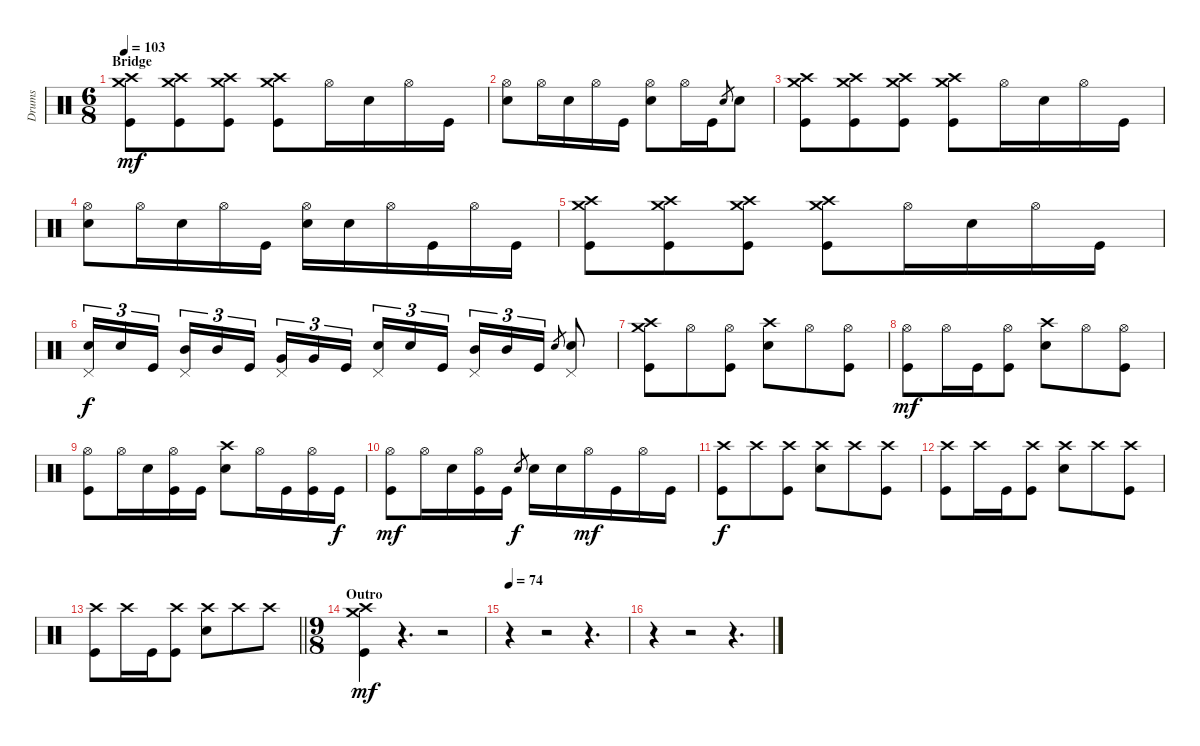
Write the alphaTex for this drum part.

\track ("Drums" "Drums") {instrument percussion}
\staff {score}
\articulation defaults
\ts (6 8)
\section ("" "Bridge")
\tempo 103
\clef neutral
\ks c
("Crash medium (hit)" "Crash high (hit)" "Kick (hit)").8{dy mf} ("Crash medium (hit)" "Crash high (hit)" "Kick (hit)").8 ("Crash medium (hit)" "Crash high (hit)" "Kick (hit)").8 ("Crash medium (hit)" "Crash high (hit)" "Kick (hit)").8 "Hi-Hat (open)".16 "Snare (hit) 2".16 "Hi-Hat (open)".16 "Kick (hit)".16 |
("Hi-Hat (open)" "Snare (hit) 2").8 "Hi-Hat (open)".16 "Snare (hit) 2".16 "Hi-Hat (open)".16 "Kick (hit)".16 ("Hi-Hat (open)" "Snare (hit) 2").8 "Hi-Hat (open)".16 "Kick (hit)".16 "Snare (hit) 2".8{gr} "Snare (hit) 2".8 |
("Crash medium (hit)" "Crash high (hit)" "Kick (hit)").8 ("Crash medium (hit)" "Crash high (hit)" "Kick (hit)").8 ("Crash medium (hit)" "Crash high (hit)" "Kick (hit)").8 ("Crash medium (hit)" "Crash high (hit)" "Kick (hit)").8 "Hi-Hat (open)".16 "Snare (hit) 2".16 "Hi-Hat (open)".16 "Kick (hit)".16 |
("Hi-Hat (open)" "Snare (hit) 2").8 "Hi-Hat (open)".16 "Snare (hit) 2".16 "Hi-Hat (open)".16 "Kick (hit)".16 ("Hi-Hat (open)" "Snare (hit) 2").16 "Snare (hit) 2".16 "Hi-Hat (open)".16 "Kick (hit)".16 "Hi-Hat (open)".16 "Kick (hit)".16 |
("Crash medium (hit)" "Crash high (hit)" "Kick (hit)").8 ("Crash medium (hit)" "Crash high (hit)" "Kick (hit)").8 ("Crash medium (hit)" "Crash high (hit)" "Kick (hit)").8 ("Crash medium (hit)" "Crash high (hit)" "Kick (hit)").8 "Hi-Hat (open)".16 "Snare (hit) 2".16 "Hi-Hat (open)".16 "Kick (hit)".16 |
("Pedal Hi-Hat (hit)" "Snare (hit) 2").16{tu (3 2) dy f} "Snare (hit) 2".16{tu (3 2)} "Kick (hit)".16{tu (3 2) beam splitsecondary} ("Pedal Hi-Hat (hit)" "Mid Tom (hit)").16{tu (3 2)} "Mid Tom (hit)".16{tu (3 2)} "Kick (hit)".16{tu (3 2) beam splitsecondary} ("Pedal Hi-Hat (hit)" "Very Low Tom (hit)").16{tu (3 2)} "Very Low Tom (hit)".16{tu (3 2)} "Kick (hit)".16{tu (3 2)} ("Pedal Hi-Hat (hit)" "Snare (hit) 2").16{tu (3 2)} "Snare (hit) 2".16{tu (3 2)} "Kick (hit)".16{tu (3 2) beam splitsecondary} ("Pedal Hi-Hat (hit)" "Mid Tom (hit)").16{tu (3 2)} "Mid Tom (hit)".16{tu (3 2)} "Kick (hit)".16{tu (3 2)} "Snare (hit) 2".8{gr} ("Pedal Hi-Hat (hit)" "Snare (hit) 2").8 |
("Crash high (hit)" "Crash medium (hit)" "Kick (hit)").8 "Hi-Hat (open)".8 ("Hi-Hat (open)" "Kick (hit)").8 ("Crash high (hit)" "Snare (hit) 2").8 "Hi-Hat (open)".8 ("Hi-Hat (open)" "Kick (hit)").8 |
("Hi-Hat (open)" "Kick (hit)").8{dy mf} "Hi-Hat (open)".16 "Kick (hit)".16 ("Hi-Hat (open)" "Kick (hit)").8 ("Crash high (hit)" "Snare (hit) 2").8 "Hi-Hat (open)".8 ("Hi-Hat (open)" "Kick (hit)").8 |
("Hi-Hat (open)" "Kick (hit)").8 "Hi-Hat (open)".16 "Snare (hit) 2".16 ("Hi-Hat (open)" "Kick (hit)").16 "Kick (hit)".16 ("Crash high (hit)" "Snare (hit) 2").8 "Hi-Hat (open)".16 "Kick (hit)".16 ("Hi-Hat (open)" "Kick (hit)").16 "Kick (hit)".16{dy f} |
("Hi-Hat (open)" "Kick (hit)").8{dy mf} "Hi-Hat (open)".16 "Snare (hit) 2".16 ("Hi-Hat (open)" "Kick (hit)").16 "Kick (hit)".16 "Snare (hit) 2".8{gr dy f} "Snare (hit) 2".16 "Snare (hit) 2".16 "Hi-Hat (open)".16{dy mf} "Kick (hit)".16 "Hi-Hat (open)".16 "Kick (hit)".16 |
("Crash high (hit)" "Kick (hit)").8{dy f} "Crash high (hit)".8 ("Crash high (hit)" "Kick (hit)").8 ("Crash high (hit)" "Snare (hit) 2").8 "Crash high (hit)".8 ("Crash high (hit)" "Kick (hit)").8 |
("Crash high (hit)" "Kick (hit)").8 "Crash high (hit)".16 "Kick (hit)".16 ("Crash high (hit)" "Kick (hit)").8 ("Crash high (hit)" "Snare (hit) 2").8 "Crash high (hit)".8 ("Crash high (hit)" "Kick (hit)").8 |
\barLineRight lightlight
("Crash high (hit)" "Kick (hit)").8 "Crash high (hit)".16 "Kick (hit)".16 ("Crash high (hit)" "Kick (hit)").8 ("Crash high (hit)" "Snare (hit) 2").8 "Crash high (hit)".8 "Crash high (hit)".8 |
\ts (9 8)
\section ("" "Outro")
("Crash medium (hit)" "Crash high (hit)" "Kick (hit)").4{dy mf} r.4{d} r.2 |
\tempo 74
r.4 r.2 r.4{d} |
r.4 r.2 r.4{d}
